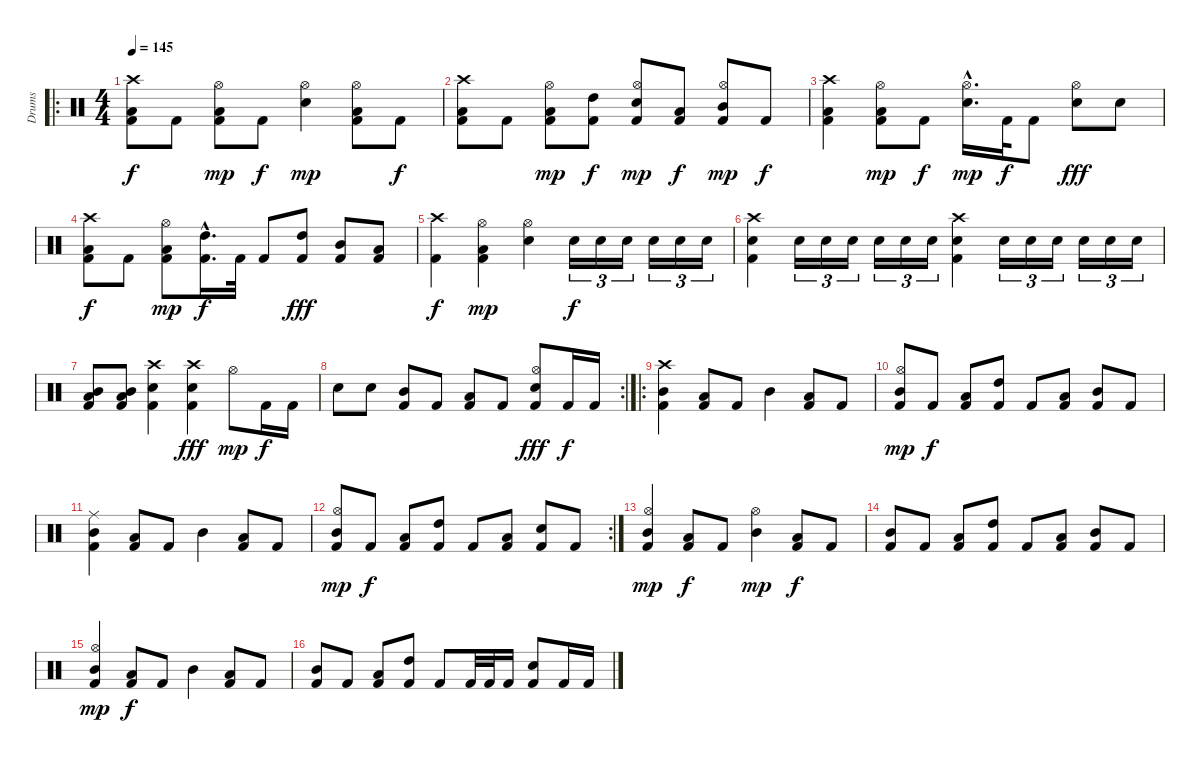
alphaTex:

\track ("Drums" "Drums") {instrument percussion}
\staff {score}
\articulation defaults
\ro
\ts (4 4)
\tempo 145
\clef neutral
\ks c
("Crash high (hit)" "Low Tom (hit)" "Kick (hit) 2").8{dy f} "Kick (hit) 2".8 ("Hi-Hat (open)" "Low Tom (hit)" "Kick (hit) 2").8{dy mp} "Kick (hit) 2".8{dy f} ("Hi-Hat (open)" "Electric Snare (hit)").4{dy mp} ("Hi-Hat (open)" "Low Tom (hit)" "Kick (hit) 2").8 "Kick (hit) 2".8{dy f} |
("Crash high (hit)" "Low Tom (hit)" "Kick (hit) 2").8 "Kick (hit) 2".8 ("Hi-Hat (open)" "Low Tom (hit)" "Kick (hit) 2").8{dy mp} ("High Tom (hit)" "Kick (hit) 2").8{dy f} ("Hi-Hat (open)" "Electric Snare (hit)" "Kick (hit) 2").8{dy mp} ("Low Tom (hit)" "Kick (hit) 2").8{dy f} ("Hi-Hat (open)" "Mid Tom (hit)" "Kick (hit) 2").8{dy mp} "Kick (hit) 2".8{dy f} |
("Crash high (hit)" "Low Tom (hit)" "Kick (hit) 2").4 ("Hi-Hat (open)" "Low Tom (hit)" "Kick (hit) 2").8{dy mp} "Kick (hit) 2".8{dy f} ("Hi-Hat (open)"{hac} "Electric Snare (hit)"{hac}).16{d dy mp} "Kick (hit) 2".32{dy f} "Kick (hit) 2".8 ("Hi-Hat (open)" "Electric Snare (hit)").8{dy fff} "Electric Snare (hit)".8 |
("Crash high (hit)" "Low Tom (hit)" "Kick (hit) 2").8{dy f} "Kick (hit) 2".8 ("Hi-Hat (open)" "Low Tom (hit)" "Kick (hit) 2").8{dy mp} ("High Tom (hit)"{hac} "Kick (hit) 2"{hac}).16{d dy f} "Kick (hit) 2".32 "Kick (hit) 2".8 ("High Tom (hit)" "Kick (hit) 2").8{dy fff} ("Mid Tom (hit)" "Kick (hit) 2").8 ("Low Tom (hit)" "Kick (hit) 2").8 |
("Crash high (hit)" "Kick (hit) 2").4{dy f} ("Hi-Hat (open)" "Low Tom (hit)" "Kick (hit) 2").4{dy mp} ("Hi-Hat (open)" "Electric Snare (hit)").4 "Electric Snare (hit)".16{tu (3 2) dy f} "Electric Snare (hit)".16{tu (3 2)} "Electric Snare (hit)".16{tu (3 2)} "Electric Snare (hit)".16{tu (3 2)} "Electric Snare (hit)".16{tu (3 2)} "Electric Snare (hit)".16{tu (3 2)} |
("Crash high (hit)" "Electric Snare (hit)" "Kick (hit) 2").4 "Electric Snare (hit)".16{tu (3 2)} "Electric Snare (hit)".16{tu (3 2)} "Electric Snare (hit)".16{tu (3 2)} "Electric Snare (hit)".16{tu (3 2)} "Electric Snare (hit)".16{tu (3 2)} "Electric Snare (hit)".16{tu (3 2)} ("Crash high (hit)" "Electric Snare (hit)" "Kick (hit) 2").4 "Electric Snare (hit)".16{tu (3 2)} "Electric Snare (hit)".16{tu (3 2)} "Electric Snare (hit)".16{tu (3 2)} "Electric Snare (hit)".16{tu (3 2)} "Electric Snare (hit)".16{tu (3 2)} "Electric Snare (hit)".16{tu (3 2)} |
("Mid Tom (hit)" "Low Tom (hit)" "Kick (hit) 2").8 ("Mid Tom (hit)" "Low Tom (hit)" "Kick (hit) 2").8 ("Crash high (hit)" "Electric Snare (hit)" "Kick (hit) 2").4 ("Crash high (hit)" "Electric Snare (hit)" "Kick (hit) 2").4{dy fff} "Hi-Hat (open)".8{dy mp} "Kick (hit) 2".16{dy f} "Kick (hit) 2".16 |
\rc 2 "Electric Snare (hit)".8 "Electric Snare (hit)".8
("Mid Tom (hit)" "Kick (hit) 2").8 "Kick (hit) 2".8 ("Low Tom (hit)" "Kick (hit) 2").8 "Kick (hit) 2".8 ("Hi-Hat (open)" "Electric Snare (hit)" "Kick (hit) 2").8{dy fff} "Kick (hit) 2".16{dy f} "Kick (hit) 2".16 |
\ro
("Crash high (hit)" "Mid Tom (hit)" "Kick (hit) 2").4 ("Low Tom (hit)" "Kick (hit) 2").8 "Kick (hit) 2".8 "Mid Tom (hit)".4 ("Low Tom (hit)" "Kick (hit) 2").8 "Kick (hit) 2".8 |
("Hi-Hat (open)" "Mid Tom (hit)" "Kick (hit) 2").8{dy mp} "Kick (hit) 2".8{dy f} ("Low Tom (hit)" "Kick (hit) 2").8 ("High Tom (hit)" "Kick (hit) 2").8 "Kick (hit) 2".8 ("Low Tom (hit)" "Kick (hit) 2").8 ("Mid Tom (hit)" "Kick (hit) 2").8 "Kick (hit) 2".8 |
("Ride (middle)" "Mid Tom (hit)" "Kick (hit) 2").4 ("Low Tom (hit)" "Kick (hit) 2").8 "Kick (hit) 2".8 "Mid Tom (hit)".4 ("Low Tom (hit)" "Kick (hit) 2").8 "Kick (hit) 2".8 |
\rc 2
("Hi-Hat (open)" "Mid Tom (hit)" "Kick (hit) 2").8{dy mp} "Kick (hit) 2".8{dy f} ("Low Tom (hit)" "Kick (hit) 2").8 ("High Tom (hit)" "Kick (hit) 2").8 "Kick (hit) 2".8 ("Low Tom (hit)" "Kick (hit) 2").8 ("Electric Snare (hit)" "Kick (hit) 2").8 "Kick (hit) 2".8 |
("Hi-Hat (open)" "Mid Tom (hit)" "Kick (hit) 2").4{dy mp} ("Low Tom (hit)" "Kick (hit) 2").8{dy f} "Kick (hit) 2".8 ("Hi-Hat (open)" "Mid Tom (hit)").4{dy mp} ("Low Tom (hit)" "Kick (hit) 2").8{dy f} "Kick (hit) 2".8 |
("Mid Tom (hit)" "Kick (hit) 2").8 "Kick (hit) 2".8 ("Low Tom (hit)" "Kick (hit) 2").8 ("High Tom (hit)" "Kick (hit) 2").8 "Kick (hit) 2".8 ("Low Tom (hit)" "Kick (hit) 2").8 ("Mid Tom (hit)" "Kick (hit) 2").8 "Kick (hit) 2".8 |
("Hi-Hat (open)" "Mid Tom (hit)" "Kick (hit) 2").4{dy mp} ("Low Tom (hit)" "Kick (hit) 2").8{dy f} "Kick (hit) 2".8 "Mid Tom (hit)".4 ("Low Tom (hit)" "Kick (hit) 2").8 "Kick (hit) 2".8 |
("Mid Tom (hit)" "Kick (hit) 2").8 "Kick (hit) 2".8 ("Low Tom (hit)" "Kick (hit) 2").8 ("High Tom (hit)" "Kick (hit) 2").8 "Kick (hit) 2".8 "Kick (hit) 2".32 "Kick (hit) 2".32 "Kick (hit) 2".16 ("Electric Snare (hit)" "Kick (hit) 2").8 "Kick (hit) 2".16 "Kick (hit) 2".16
